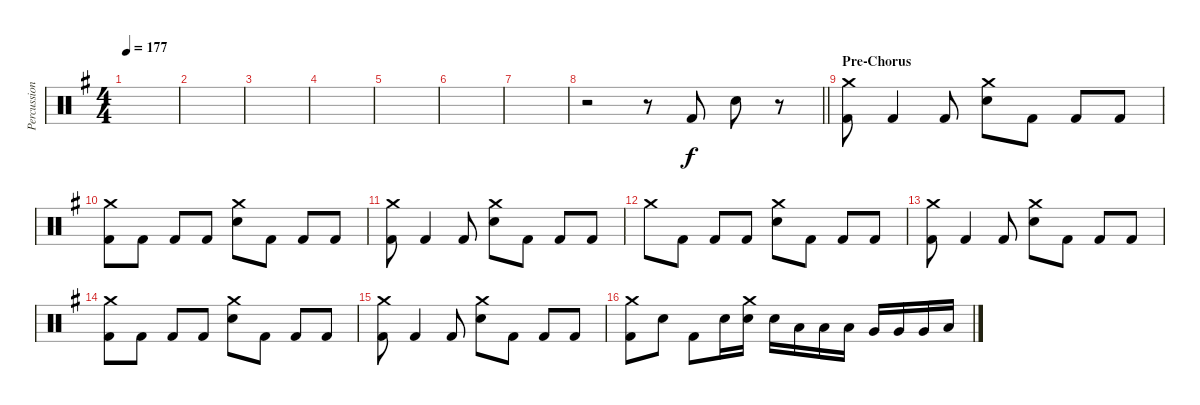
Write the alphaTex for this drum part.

\track ("Percussion" "Percussion") {instrument percussion}
\staff {score}
\articulation defaults
\ts (4 4)
\tempo 177
\clef neutral
\ks g
|
|
|
|
|
|
|
\barLineRight lightlight
r.2 r.8 "Kick (hit) 2".8 "Electric Snare (hit)".8 r.8 |
\section ("" "Pre-Chorus")
("Crash medium (hit)" "Kick (hit) 2").8 "Kick (hit) 2".4 "Kick (hit) 2".8 ("Crash medium (hit)" "Electric Snare (hit)").8 "Kick (hit) 2".8 "Kick (hit) 2".8 "Kick (hit) 2".8 |
("Crash medium (hit)" "Kick (hit) 2").8 "Kick (hit) 2".8 "Kick (hit) 2".8 "Kick (hit) 2".8 ("Crash medium (hit)" "Electric Snare (hit)").8 "Kick (hit) 2".8 "Kick (hit) 2".8 "Kick (hit) 2".8 |
("Crash medium (hit)" "Kick (hit) 2").8 "Kick (hit) 2".4 "Kick (hit) 2".8 ("Crash medium (hit)" "Electric Snare (hit)").8 "Kick (hit) 2".8 "Kick (hit) 2".8 "Kick (hit) 2".8 |
"Crash medium (hit)".8 "Kick (hit) 2".8 "Kick (hit) 2".8 "Kick (hit) 2".8 ("Crash medium (hit)" "Electric Snare (hit)").8 "Kick (hit) 2".8 "Kick (hit) 2".8 "Kick (hit) 2".8 |
("Crash medium (hit)" "Kick (hit) 2").8 "Kick (hit) 2".4 "Kick (hit) 2".8 ("Crash medium (hit)" "Electric Snare (hit)").8 "Kick (hit) 2".8 "Kick (hit) 2".8 "Kick (hit) 2".8 |
("Crash medium (hit)" "Kick (hit) 2").8 "Kick (hit) 2".8 "Kick (hit) 2".8 "Kick (hit) 2".8 ("Crash medium (hit)" "Electric Snare (hit)").8 "Kick (hit) 2".8 "Kick (hit) 2".8 "Kick (hit) 2".8 |
("Crash medium (hit)" "Kick (hit) 2").8 "Kick (hit) 2".4 "Kick (hit) 2".8 ("Crash medium (hit)" "Electric Snare (hit)").8 "Kick (hit) 2".8 "Kick (hit) 2".8 "Kick (hit) 2".8 |
("Crash medium (hit)" "Kick (hit) 2").8 "Electric Snare (hit)".8 "Kick (hit) 2".8 "Electric Snare (hit)".16 ("Crash medium (hit)" "Electric Snare (hit)").16 "Electric Snare (hit)".16 "Low Tom (hit)".16 "Low Tom (hit)".16 "Low Tom (hit)".16 "Very Low Tom (hit)".16 "Very Low Tom (hit)".16 "Very Low Tom (hit)".16 "Low Floor Tom (hit)".16
